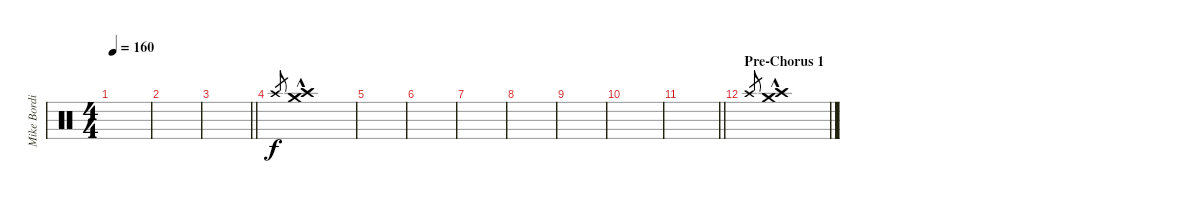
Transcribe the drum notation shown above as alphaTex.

\track ("Mike Bordin - Percussion Crash" "Mike Bordi") {instrument percussion}
\staff {score}
\articulation defaults
\ts (4 4)
\tempo 160
\clef neutral
\ks c
|
|
\barLineRight lightlight
|
\section ("" "")
"Crash high (hit)".8{gr} ("Crash high (hit)"{hac} "Crash medium (hit)").1{volume 16} |
|
|
|
|
|
|
\barLineRight lightlight
|
\section ("" "Pre-Chorus 1")
"Crash high (hit)".8{gr} ("Crash high (hit)"{hac} "Crash medium (hit)").1{volume 16}
